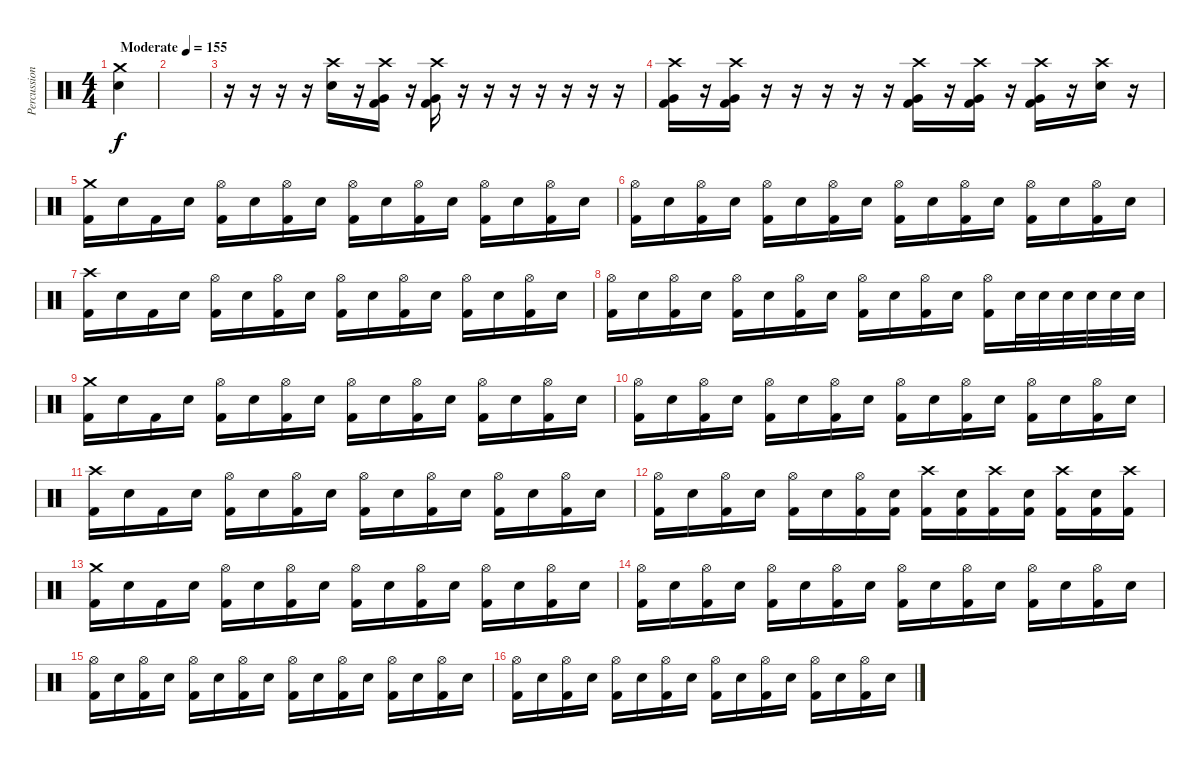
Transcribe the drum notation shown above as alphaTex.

\track ("Percussion" "Percussion") {instrument percussion}
\staff {score}
\articulation defaults
\ts (4 4)
\tempo (155 "Moderate")
\clef neutral
\ks c
("Snare (hit) 2" "Crash medium (hit)").4{dy f} |
|
r.16 r.16 r.16 r.16 ("Crash high (hit)" "Snare (hit) 2").16 r.16 ("Crash high (hit)" "Very Low Tom (hit)" "Kick (hit) 2").16 r.16 ("Crash high (hit)" "Very Low Tom (hit)" "Kick (hit) 2").16 r.16 r.16 r.16 r.16 r.16 r.16 r.16 |
("Crash high (hit)" "Very Low Tom (hit)" "Kick (hit) 2").16 r.16 ("Crash high (hit)" "Very Low Tom (hit)" "Kick (hit) 2").16 r.16 r.16 r.16 r.16 r.16 ("Crash high (hit)" "Very Low Tom (hit)" "Kick (hit) 2").16 r.16 ("Crash high (hit)" "Very Low Tom (hit)" "Kick (hit) 2").16 r.16 ("Crash high (hit)" "Very Low Tom (hit)" "Kick (hit) 2").16 r.16 ("Crash high (hit)" "Snare (hit) 2").16 r.16 |
("Kick (hit) 2" "Crash medium (hit)").16 "Snare (hit) 2".16 "Kick (hit) 2".16 "Snare (hit) 2".16 ("Kick (hit) 2" "Hi-Hat (open)").16 "Snare (hit) 2".16 ("Kick (hit) 2" "Hi-Hat (open)").16 "Snare (hit) 2".16 ("Kick (hit) 2" "Hi-Hat (open)").16 "Snare (hit) 2".16 ("Kick (hit) 2" "Hi-Hat (open)").16 "Snare (hit) 2".16 ("Kick (hit) 2" "Hi-Hat (open)").16 "Snare (hit) 2".16 ("Kick (hit) 2" "Hi-Hat (open)").16 "Snare (hit) 2".16 |
("Kick (hit) 2" "Hi-Hat (open)").16 "Snare (hit) 2".16 ("Kick (hit) 2" "Hi-Hat (open)").16 "Snare (hit) 2".16 ("Kick (hit) 2" "Hi-Hat (open)").16 "Snare (hit) 2".16 ("Kick (hit) 2" "Hi-Hat (open)").16 "Snare (hit) 2".16 ("Kick (hit) 2" "Hi-Hat (open)").16 "Snare (hit) 2".16 ("Kick (hit) 2" "Hi-Hat (open)").16 "Snare (hit) 2".16 ("Kick (hit) 2" "Hi-Hat (open)").16 "Snare (hit) 2".16 ("Kick (hit) 2" "Hi-Hat (open)").16 "Snare (hit) 2".16 |
("Kick (hit) 2" "Crash high (hit)").16 "Snare (hit) 2".16 "Kick (hit) 2".16 "Snare (hit) 2".16 ("Kick (hit) 2" "Hi-Hat (open)").16 "Snare (hit) 2".16 ("Kick (hit) 2" "Hi-Hat (open)").16 "Snare (hit) 2".16 ("Kick (hit) 2" "Hi-Hat (open)").16 "Snare (hit) 2".16 ("Kick (hit) 2" "Hi-Hat (open)").16 "Snare (hit) 2".16 ("Kick (hit) 2" "Hi-Hat (open)").16 "Snare (hit) 2".16 ("Kick (hit) 2" "Hi-Hat (open)").16 "Snare (hit) 2".16 |
("Kick (hit) 2" "Hi-Hat (open)").16 "Snare (hit) 2".16 ("Kick (hit) 2" "Hi-Hat (open)").16 "Snare (hit) 2".16 ("Kick (hit) 2" "Hi-Hat (open)").16 "Snare (hit) 2".16 ("Kick (hit) 2" "Hi-Hat (open)").16 "Snare (hit) 2".16 ("Kick (hit) 2" "Hi-Hat (open)").16 "Snare (hit) 2".16 ("Kick (hit) 2" "Hi-Hat (open)").16 "Snare (hit) 2".16 ("Kick (hit) 2" "Hi-Hat (open)").16 "Snare (hit) 2".32 "Snare (hit) 2".32 "Snare (hit) 2".32 "Snare (hit) 2".32 "Snare (hit) 2".32 "Snare (hit) 2".32 |
("Kick (hit) 2" "Crash medium (hit)").16 "Snare (hit) 2".16 "Kick (hit) 2".16 "Snare (hit) 2".16 ("Kick (hit) 2" "Hi-Hat (open)").16 "Snare (hit) 2".16 ("Kick (hit) 2" "Hi-Hat (open)").16 "Snare (hit) 2".16 ("Kick (hit) 2" "Hi-Hat (open)").16 "Snare (hit) 2".16 ("Kick (hit) 2" "Hi-Hat (open)").16 "Snare (hit) 2".16 ("Kick (hit) 2" "Hi-Hat (open)").16 "Snare (hit) 2".16 ("Kick (hit) 2" "Hi-Hat (open)").16 "Snare (hit) 2".16 |
("Kick (hit) 2" "Hi-Hat (open)").16 "Snare (hit) 2".16 ("Kick (hit) 2" "Hi-Hat (open)").16 "Snare (hit) 2".16 ("Kick (hit) 2" "Hi-Hat (open)").16 "Snare (hit) 2".16 ("Kick (hit) 2" "Hi-Hat (open)").16 "Snare (hit) 2".16 ("Kick (hit) 2" "Hi-Hat (open)").16 "Snare (hit) 2".16 ("Kick (hit) 2" "Hi-Hat (open)").16 "Snare (hit) 2".16 ("Kick (hit) 2" "Hi-Hat (open)").16 "Snare (hit) 2".16 ("Kick (hit) 2" "Hi-Hat (open)").16 "Snare (hit) 2".16 |
("Kick (hit) 2" "Crash high (hit)").16 "Snare (hit) 2".16 "Kick (hit) 2".16 "Snare (hit) 2".16 ("Kick (hit) 2" "Hi-Hat (open)").16 "Snare (hit) 2".16 ("Kick (hit) 2" "Hi-Hat (open)").16 "Snare (hit) 2".16 ("Kick (hit) 2" "Hi-Hat (open)").16 "Snare (hit) 2".16 ("Kick (hit) 2" "Hi-Hat (open)").16 "Snare (hit) 2".16 ("Kick (hit) 2" "Hi-Hat (open)").16 "Snare (hit) 2".16 ("Kick (hit) 2" "Hi-Hat (open)").16 "Snare (hit) 2".16 |
("Kick (hit) 2" "Hi-Hat (open)").16 "Snare (hit) 2".16 ("Kick (hit) 2" "Hi-Hat (open)").16 "Snare (hit) 2".16 ("Kick (hit) 2" "Hi-Hat (open)").16 "Snare (hit) 2".16 ("Kick (hit) 2" "Hi-Hat (open)").16 ("Snare (hit) 2" "Kick (hit) 2").16 ("Kick (hit) 2" "Crash high (hit)").16 ("Snare (hit) 2" "Kick (hit) 2").16 ("Kick (hit) 2" "Crash high (hit)").16 ("Snare (hit) 2" "Kick (hit) 2").16 ("Kick (hit) 2" "Crash high (hit)").16 ("Snare (hit) 2" "Kick (hit) 2").16 ("Kick (hit) 2" "Crash high (hit)").16 |
("Kick (hit) 2" "Crash medium (hit)").16 "Snare (hit) 2".16 "Kick (hit) 2".16 "Snare (hit) 2".16 ("Kick (hit) 2" "Hi-Hat (open)").16 "Snare (hit) 2".16 ("Kick (hit) 2" "Hi-Hat (open)").16 "Snare (hit) 2".16 ("Kick (hit) 2" "Hi-Hat (open)").16 "Snare (hit) 2".16 ("Kick (hit) 2" "Hi-Hat (open)").16 "Snare (hit) 2".16 ("Kick (hit) 2" "Hi-Hat (open)").16 "Snare (hit) 2".16 ("Kick (hit) 2" "Hi-Hat (open)").16 "Snare (hit) 2".16 |
("Kick (hit) 2" "Hi-Hat (open)").16 "Snare (hit) 2".16 ("Kick (hit) 2" "Hi-Hat (open)").16 "Snare (hit) 2".16 ("Kick (hit) 2" "Hi-Hat (open)").16 "Snare (hit) 2".16 ("Kick (hit) 2" "Hi-Hat (open)").16 "Snare (hit) 2".16 ("Kick (hit) 2" "Hi-Hat (open)").16 "Snare (hit) 2".16 ("Kick (hit) 2" "Hi-Hat (open)").16 "Snare (hit) 2".16 ("Kick (hit) 2" "Hi-Hat (open)").16 "Snare (hit) 2".16 ("Kick (hit) 2" "Hi-Hat (open)").16 "Snare (hit) 2".16 |
("Kick (hit) 2" "Hi-Hat (open)").16 "Snare (hit) 2".16 ("Kick (hit) 2" "Hi-Hat (open)").16 "Snare (hit) 2".16 ("Kick (hit) 2" "Hi-Hat (open)").16 "Snare (hit) 2".16 ("Kick (hit) 2" "Hi-Hat (open)").16 "Snare (hit) 2".16 ("Kick (hit) 2" "Hi-Hat (open)").16 "Snare (hit) 2".16 ("Kick (hit) 2" "Hi-Hat (open)").16 "Snare (hit) 2".16 ("Kick (hit) 2" "Hi-Hat (open)").16 "Snare (hit) 2".16 ("Kick (hit) 2" "Hi-Hat (open)").16 "Snare (hit) 2".16 |
("Kick (hit) 2" "Hi-Hat (open)").16 "Snare (hit) 2".16 ("Kick (hit) 2" "Hi-Hat (open)").16 "Snare (hit) 2".16 ("Kick (hit) 2" "Hi-Hat (open)").16 "Snare (hit) 2".16 ("Kick (hit) 2" "Hi-Hat (open)").16 "Snare (hit) 2".16 ("Kick (hit) 2" "Hi-Hat (open)").16 "Snare (hit) 2".16 ("Kick (hit) 2" "Hi-Hat (open)").16 "Snare (hit) 2".16 ("Kick (hit) 2" "Hi-Hat (open)").16 "Snare (hit) 2".16 ("Kick (hit) 2" "Hi-Hat (open)").16 "Snare (hit) 2".16
